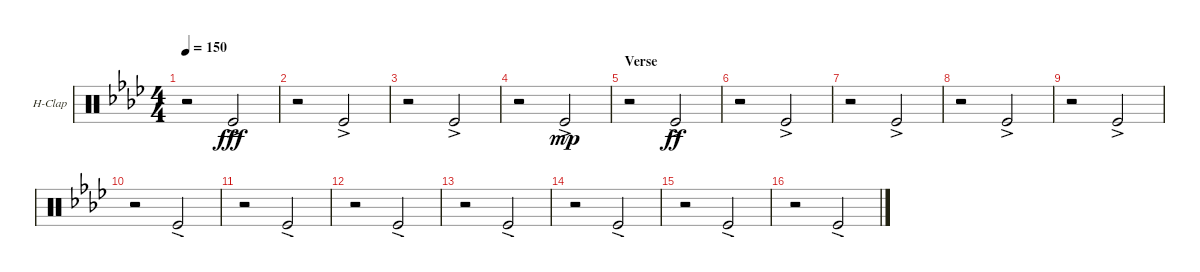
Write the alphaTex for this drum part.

\bracketExtendMode groupsimilarinstruments
\firstSystemTrackNameOrientation horizontal
\otherSystemsTrackNameOrientation horizontal
\track ("Hand Clap" "H-Clap") {instrument percussion}
\staff {score}
\articulation defaults
\ts (4 4)
\tempo 150
\clef neutral
\scale
0.525424
\ks ab
r.2{dy fff} "Kick (hit)"{ac}.2 |
\scale
0.237288 r.2 "Kick (hit)"{ac}.2 |
\scale
0.237288 r.2 "Kick (hit)"{ac}.2 |
\scale
0.333333 r.2 "Kick (hit)"{ac}.2{dy mp} |
\section ("" "Verse")
\scale
0.333333 r.2 "Kick (hit)"{ac}.2{dy ff} |
\scale
0.333333 r.2 "Kick (hit)"{ac}.2 |
\scale
0.333333 r.2 "Kick (hit)"{ac}.2 |
\scale
0.333333 r.2 "Kick (hit)"{ac}.2 |
\scale
0.333333 r.2 "Kick (hit)"{ac}.2 |
\scale
0.333333 r.2 "Kick (hit)"{ac}.2 |
\scale
0.333333 r.2 "Kick (hit)"{ac}.2 |
\scale
0.333333 r.2 "Kick (hit)"{ac}.2 |
\scale
0.333333 r.2 "Kick (hit)"{ac}.2 |
\scale
0.333333 r.2 "Kick (hit)"{ac}.2 |
\scale
0.333333 r.2 "Kick (hit)"{ac}.2 |
\scale
0.333333 r.2 "Kick (hit)"{ac}.2
